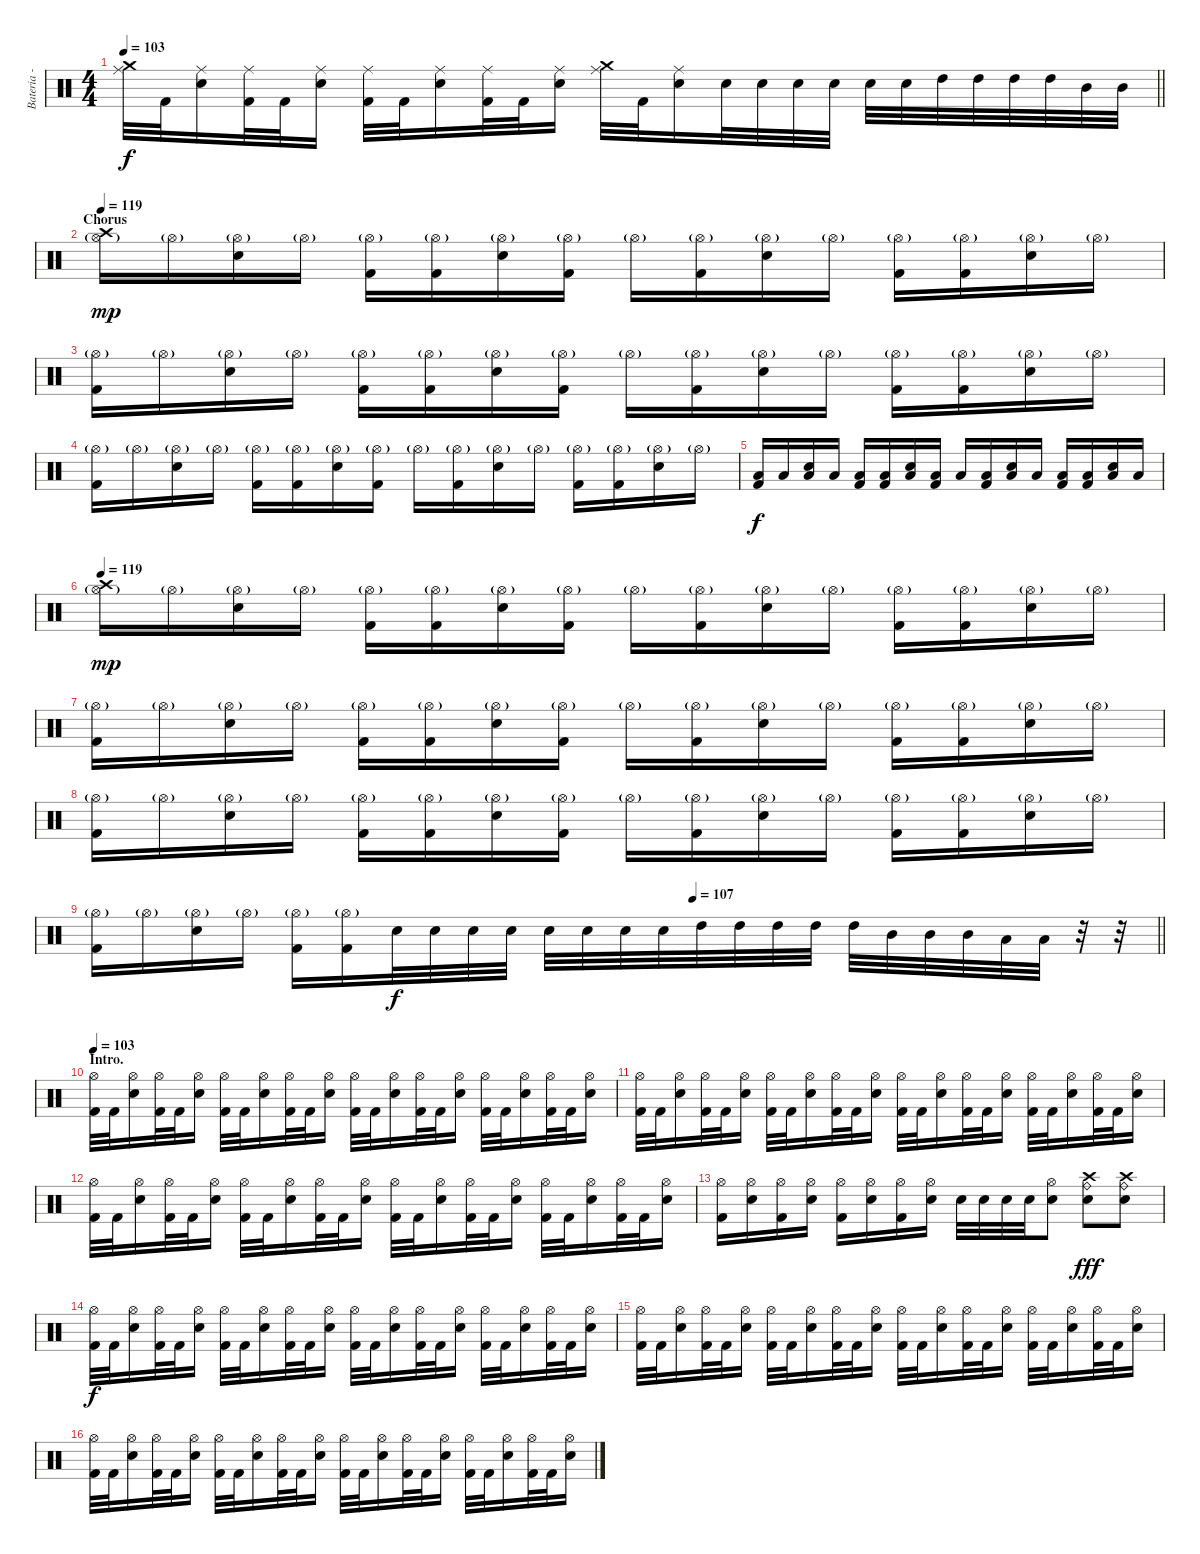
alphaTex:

\track ("Bateria - Larzon" "Bateria - ") {instrument percussion}
\staff {score}
\articulation defaults
\ts (4 4)
\tempo 103
\clef neutral
\barLineRight lightlight
\ks c
("Crash medium (hit)" "Ride (middle)").32{dy f} "Kick (hit) 2".32 ("Snare (hit) 2" "Ride (middle)").16 ("Kick (hit) 2" "Ride (middle)").32 "Kick (hit) 2".32 ("Snare (hit) 2" "Ride (middle)").16 ("Kick (hit) 2" "Ride (middle)").32 "Kick (hit) 2".32 ("Snare (hit) 2" "Ride (middle)").16 ("Kick (hit) 2" "Ride (middle)").32 "Kick (hit) 2".32 ("Snare (hit) 2" "Ride (middle)").16 ("Crash medium (hit)" "Ride (middle)").32 "Kick (hit) 2".32 ("Snare (hit) 2" "Ride (middle)").16 "Snare (hit) 2".32 "Snare (hit) 2".32 "Snare (hit) 2".32 "Snare (hit) 2".32 "Snare (hit) 2".32 "Snare (hit) 2".32 "High Tom (hit)".32 "High Tom (hit)".32 "High Tom (hit)".32 "High Tom (hit)".32 "Mid Tom (hit)".32 "Mid Tom (hit)".32 |
\section ("" "Chorus")
\tempo 119
("Crash high (hit)" "Hi-Hat (open)"{g}).16{dy mp} "Hi-Hat (open)"{g}.16 ("Electric Snare (hit)" "Hi-Hat (open)"{g}).16 "Hi-Hat (open)"{g}.16 ("Kick (hit) 2" "Hi-Hat (open)"{g}).16 ("Kick (hit) 2" "Hi-Hat (open)"{g}).16 ("Electric Snare (hit)" "Hi-Hat (open)"{g}).16 ("Kick (hit) 2" "Hi-Hat (open)"{g}).16 "Hi-Hat (open)"{g}.16 ("Kick (hit) 2" "Hi-Hat (open)"{g}).16 ("Electric Snare (hit)" "Hi-Hat (open)"{g}).16 "Hi-Hat (open)"{g}.16 ("Kick (hit) 2" "Hi-Hat (open)"{g}).16 ("Kick (hit) 2" "Hi-Hat (open)"{g}).16 ("Electric Snare (hit)" "Hi-Hat (open)"{g}).16 "Hi-Hat (open)"{g}.16 |
("Kick (hit) 2" "Hi-Hat (open)"{g}).16 "Hi-Hat (open)"{g}.16 ("Electric Snare (hit)" "Hi-Hat (open)"{g}).16 "Hi-Hat (open)"{g}.16 ("Kick (hit) 2" "Hi-Hat (open)"{g}).16 ("Kick (hit) 2" "Hi-Hat (open)"{g}).16 ("Electric Snare (hit)" "Hi-Hat (open)"{g}).16 ("Kick (hit) 2" "Hi-Hat (open)"{g}).16 "Hi-Hat (open)"{g}.16 ("Kick (hit) 2" "Hi-Hat (open)"{g}).16 ("Electric Snare (hit)" "Hi-Hat (open)"{g}).16 "Hi-Hat (open)"{g}.16 ("Kick (hit) 2" "Hi-Hat (open)"{g}).16 ("Kick (hit) 2" "Hi-Hat (open)"{g}).16 ("Electric Snare (hit)" "Hi-Hat (open)"{g}).16 "Hi-Hat (open)"{g}.16 |
("Kick (hit) 2" "Hi-Hat (open)"{g}).16 "Hi-Hat (open)"{g}.16 ("Electric Snare (hit)" "Hi-Hat (open)"{g}).16 "Hi-Hat (open)"{g}.16 ("Kick (hit) 2" "Hi-Hat (open)"{g}).16 ("Kick (hit) 2" "Hi-Hat (open)"{g}).16 ("Electric Snare (hit)" "Hi-Hat (open)"{g}).16 ("Kick (hit) 2" "Hi-Hat (open)"{g}).16 "Hi-Hat (open)"{g}.16 ("Kick (hit) 2" "Hi-Hat (open)"{g}).16 ("Electric Snare (hit)" "Hi-Hat (open)"{g}).16 "Hi-Hat (open)"{g}.16 ("Kick (hit) 2" "Hi-Hat (open)"{g}).16 ("Kick (hit) 2" "Hi-Hat (open)"{g}).16 ("Electric Snare (hit)" "Hi-Hat (open)"{g}).16 "Hi-Hat (open)"{g}.16 |
("Kick (hit) 2" "Low Floor Tom (hit)").16{dy f} "Low Floor Tom (hit)".16 ("Electric Snare (hit)" "Low Floor Tom (hit)").16 "Low Floor Tom (hit)".16 ("Kick (hit) 2" "Low Floor Tom (hit)").16 ("Kick (hit) 2" "Low Floor Tom (hit)").16 ("Electric Snare (hit)" "Low Floor Tom (hit)").16 ("Kick (hit) 2" "Low Floor Tom (hit)").16 "Low Floor Tom (hit)".16 ("Kick (hit) 2" "Low Floor Tom (hit)").16 ("Electric Snare (hit)" "Low Floor Tom (hit)").16 "Low Floor Tom (hit)".16 ("Kick (hit) 2" "Low Floor Tom (hit)").16 ("Kick (hit) 2" "Low Floor Tom (hit)").16 ("Electric Snare (hit)" "Low Floor Tom (hit)").16 "Low Floor Tom (hit)".16 |
\tempo 119
("Crash high (hit)" "Hi-Hat (open)"{g}).16{dy mp} "Hi-Hat (open)"{g}.16 ("Electric Snare (hit)" "Hi-Hat (open)"{g}).16 "Hi-Hat (open)"{g}.16 ("Kick (hit) 2" "Hi-Hat (open)"{g}).16 ("Kick (hit) 2" "Hi-Hat (open)"{g}).16 ("Electric Snare (hit)" "Hi-Hat (open)"{g}).16 ("Kick (hit) 2" "Hi-Hat (open)"{g}).16 "Hi-Hat (open)"{g}.16 ("Kick (hit) 2" "Hi-Hat (open)"{g}).16 ("Electric Snare (hit)" "Hi-Hat (open)"{g}).16 "Hi-Hat (open)"{g}.16 ("Kick (hit) 2" "Hi-Hat (open)"{g}).16 ("Kick (hit) 2" "Hi-Hat (open)"{g}).16 ("Electric Snare (hit)" "Hi-Hat (open)"{g}).16 "Hi-Hat (open)"{g}.16 |
("Kick (hit) 2" "Hi-Hat (open)"{g}).16 "Hi-Hat (open)"{g}.16 ("Electric Snare (hit)" "Hi-Hat (open)"{g}).16 "Hi-Hat (open)"{g}.16 ("Kick (hit) 2" "Hi-Hat (open)"{g}).16 ("Kick (hit) 2" "Hi-Hat (open)"{g}).16 ("Electric Snare (hit)" "Hi-Hat (open)"{g}).16 ("Kick (hit) 2" "Hi-Hat (open)"{g}).16 "Hi-Hat (open)"{g}.16 ("Kick (hit) 2" "Hi-Hat (open)"{g}).16 ("Electric Snare (hit)" "Hi-Hat (open)"{g}).16 "Hi-Hat (open)"{g}.16 ("Kick (hit) 2" "Hi-Hat (open)"{g}).16 ("Kick (hit) 2" "Hi-Hat (open)"{g}).16 ("Electric Snare (hit)" "Hi-Hat (open)"{g}).16 "Hi-Hat (open)"{g}.16 |
("Kick (hit) 2" "Hi-Hat (open)"{g}).16 "Hi-Hat (open)"{g}.16 ("Electric Snare (hit)" "Hi-Hat (open)"{g}).16 "Hi-Hat (open)"{g}.16 ("Kick (hit) 2" "Hi-Hat (open)"{g}).16 ("Kick (hit) 2" "Hi-Hat (open)"{g}).16 ("Electric Snare (hit)" "Hi-Hat (open)"{g}).16 ("Kick (hit) 2" "Hi-Hat (open)"{g}).16 "Hi-Hat (open)"{g}.16 ("Kick (hit) 2" "Hi-Hat (open)"{g}).16 ("Electric Snare (hit)" "Hi-Hat (open)"{g}).16 "Hi-Hat (open)"{g}.16 ("Kick (hit) 2" "Hi-Hat (open)"{g}).16 ("Kick (hit) 2" "Hi-Hat (open)"{g}).16 ("Electric Snare (hit)" "Hi-Hat (open)"{g}).16 "Hi-Hat (open)"{g}.16 |
\tempo (107 0.5625)
\barLineRight lightlight
("Kick (hit) 2" "Hi-Hat (open)"{g}).16 "Hi-Hat (open)"{g}.16 ("Electric Snare (hit)" "Hi-Hat (open)"{g}).16 "Hi-Hat (open)"{g}.16 ("Kick (hit) 2" "Hi-Hat (open)"{g}).16 ("Kick (hit) 2" "Hi-Hat (open)"{g}).16 "Snare (hit) 2".32{dy f} "Snare (hit) 2".32 "Snare (hit) 2".32 "Snare (hit) 2".32 "Snare (hit) 2".32 "Snare (hit) 2".32 "Snare (hit) 2".32 "Snare (hit) 2".32 "High Tom (hit)".32 "High Tom (hit)".32 "High Tom (hit)".32 "High Tom (hit)".32 "High Tom (hit)".32 "Mid Tom (hit)".32 "Mid Tom (hit)".32 "Mid Tom (hit)".32 "Low Tom (hit)".32 "Low Tom (hit)".32 r.32 r.32 |
\section ("" "Intro.")
\tempo 103
("Kick (hit) 2" "Hi-Hat (open)").32 "Kick (hit) 2".32 ("Snare (hit) 2" "Hi-Hat (open)").16 ("Kick (hit) 2" "Hi-Hat (open)").32 "Kick (hit) 2".32 ("Snare (hit) 2" "Hi-Hat (open)").16 ("Kick (hit) 2" "Hi-Hat (open)").32 "Kick (hit) 2".32 ("Snare (hit) 2" "Hi-Hat (open)").16 ("Kick (hit) 2" "Hi-Hat (open)").32 "Kick (hit) 2".32 ("Snare (hit) 2" "Hi-Hat (open)").16 ("Kick (hit) 2" "Hi-Hat (open)").32 "Kick (hit) 2".32 ("Snare (hit) 2" "Hi-Hat (open)").16 ("Kick (hit) 2" "Hi-Hat (open)").32 "Kick (hit) 2".32 ("Snare (hit) 2" "Hi-Hat (open)").16 ("Kick (hit) 2" "Hi-Hat (open)").32 "Kick (hit) 2".32 ("Snare (hit) 2" "Hi-Hat (open)").16 ("Kick (hit) 2" "Hi-Hat (open)").32 "Kick (hit) 2".32 ("Snare (hit) 2" "Hi-Hat (open)").16 |
("Kick (hit) 2" "Hi-Hat (open)").32 "Kick (hit) 2".32 ("Snare (hit) 2" "Hi-Hat (open)").16 ("Kick (hit) 2" "Hi-Hat (open)").32 "Kick (hit) 2".32 ("Snare (hit) 2" "Hi-Hat (open)").16 ("Kick (hit) 2" "Hi-Hat (open)").32 "Kick (hit) 2".32 ("Snare (hit) 2" "Hi-Hat (open)").16 ("Kick (hit) 2" "Hi-Hat (open)").32 "Kick (hit) 2".32 ("Snare (hit) 2" "Hi-Hat (open)").16 ("Kick (hit) 2" "Hi-Hat (open)").32 "Kick (hit) 2".32 ("Snare (hit) 2" "Hi-Hat (open)").16 ("Kick (hit) 2" "Hi-Hat (open)").32 "Kick (hit) 2".32 ("Snare (hit) 2" "Hi-Hat (open)").16 ("Kick (hit) 2" "Hi-Hat (open)").32 "Kick (hit) 2".32 ("Snare (hit) 2" "Hi-Hat (open)").16 ("Kick (hit) 2" "Hi-Hat (open)").32 "Kick (hit) 2".32 ("Snare (hit) 2" "Hi-Hat (open)").16 |
("Kick (hit) 2" "Hi-Hat (open)").32 "Kick (hit) 2".32 ("Snare (hit) 2" "Hi-Hat (open)").16 ("Kick (hit) 2" "Hi-Hat (open)").32 "Kick (hit) 2".32 ("Snare (hit) 2" "Hi-Hat (open)").16 ("Kick (hit) 2" "Hi-Hat (open)").32 "Kick (hit) 2".32 ("Snare (hit) 2" "Hi-Hat (open)").16 ("Kick (hit) 2" "Hi-Hat (open)").32 "Kick (hit) 2".32 ("Snare (hit) 2" "Hi-Hat (open)").16 ("Kick (hit) 2" "Hi-Hat (open)").32 "Kick (hit) 2".32 ("Snare (hit) 2" "Hi-Hat (open)").16 ("Kick (hit) 2" "Hi-Hat (open)").32 "Kick (hit) 2".32 ("Snare (hit) 2" "Hi-Hat (open)").16 ("Kick (hit) 2" "Hi-Hat (open)").32 "Kick (hit) 2".32 ("Snare (hit) 2" "Hi-Hat (open)").16 ("Kick (hit) 2" "Hi-Hat (open)").32 "Kick (hit) 2".32 ("Snare (hit) 2" "Hi-Hat (open)").16 |
("Kick (hit) 2" "Hi-Hat (open)").16 ("Snare (hit) 2" "Hi-Hat (open)").16 ("Kick (hit) 2" "Hi-Hat (open)").16 ("Snare (hit) 2" "Hi-Hat (open)").16 ("Kick (hit) 2" "Hi-Hat (open)").16 ("Snare (hit) 2" "Hi-Hat (open)").16 ("Kick (hit) 2" "Hi-Hat (open)").16 ("Snare (hit) 2" "Hi-Hat (open)").16 "Snare (hit) 2".32 "Snare (hit) 2".32 "Snare (hit) 2".32 "Snare (hit) 2".32 ("Snare (hit) 2" "Hi-Hat (open)").8 ("Snare (hit) 2" "Ride (bell)" "Crash high (hit)").8{dy fff} ("Snare (hit) 2" "Ride (bell)" "Crash high (hit)").8 |
("Kick (hit) 2" "Hi-Hat (open)").32{dy f} "Kick (hit) 2".32 ("Snare (hit) 2" "Hi-Hat (open)").16 ("Kick (hit) 2" "Hi-Hat (open)").32 "Kick (hit) 2".32 ("Snare (hit) 2" "Hi-Hat (open)").16 ("Kick (hit) 2" "Hi-Hat (open)").32 "Kick (hit) 2".32 ("Snare (hit) 2" "Hi-Hat (open)").16 ("Kick (hit) 2" "Hi-Hat (open)").32 "Kick (hit) 2".32 ("Snare (hit) 2" "Hi-Hat (open)").16 ("Kick (hit) 2" "Hi-Hat (open)").32 "Kick (hit) 2".32 ("Snare (hit) 2" "Hi-Hat (open)").16 ("Kick (hit) 2" "Hi-Hat (open)").32 "Kick (hit) 2".32 ("Snare (hit) 2" "Hi-Hat (open)").16 ("Kick (hit) 2" "Hi-Hat (open)").32 "Kick (hit) 2".32 ("Snare (hit) 2" "Hi-Hat (open)").16 ("Kick (hit) 2" "Hi-Hat (open)").32 "Kick (hit) 2".32 ("Snare (hit) 2" "Hi-Hat (open)").16 |
("Kick (hit) 2" "Hi-Hat (open)").32 "Kick (hit) 2".32 ("Snare (hit) 2" "Hi-Hat (open)").16 ("Kick (hit) 2" "Hi-Hat (open)").32 "Kick (hit) 2".32 ("Snare (hit) 2" "Hi-Hat (open)").16 ("Kick (hit) 2" "Hi-Hat (open)").32 "Kick (hit) 2".32 ("Snare (hit) 2" "Hi-Hat (open)").16 ("Kick (hit) 2" "Hi-Hat (open)").32 "Kick (hit) 2".32 ("Snare (hit) 2" "Hi-Hat (open)").16 ("Kick (hit) 2" "Hi-Hat (open)").32 "Kick (hit) 2".32 ("Snare (hit) 2" "Hi-Hat (open)").16 ("Kick (hit) 2" "Hi-Hat (open)").32 "Kick (hit) 2".32 ("Snare (hit) 2" "Hi-Hat (open)").16 ("Kick (hit) 2" "Hi-Hat (open)").32 "Kick (hit) 2".32 ("Snare (hit) 2" "Hi-Hat (open)").16 ("Kick (hit) 2" "Hi-Hat (open)").32 "Kick (hit) 2".32 ("Snare (hit) 2" "Hi-Hat (open)").16 |
("Kick (hit) 2" "Hi-Hat (open)").32 "Kick (hit) 2".32 ("Snare (hit) 2" "Hi-Hat (open)").16 ("Kick (hit) 2" "Hi-Hat (open)").32 "Kick (hit) 2".32 ("Snare (hit) 2" "Hi-Hat (open)").16 ("Kick (hit) 2" "Hi-Hat (open)").32 "Kick (hit) 2".32 ("Snare (hit) 2" "Hi-Hat (open)").16 ("Kick (hit) 2" "Hi-Hat (open)").32 "Kick (hit) 2".32 ("Snare (hit) 2" "Hi-Hat (open)").16 ("Kick (hit) 2" "Hi-Hat (open)").32 "Kick (hit) 2".32 ("Snare (hit) 2" "Hi-Hat (open)").16 ("Kick (hit) 2" "Hi-Hat (open)").32 "Kick (hit) 2".32 ("Snare (hit) 2" "Hi-Hat (open)").16 ("Kick (hit) 2" "Hi-Hat (open)").32 "Kick (hit) 2".32 ("Snare (hit) 2" "Hi-Hat (open)").16 ("Kick (hit) 2" "Hi-Hat (open)").32 "Kick (hit) 2".32 ("Snare (hit) 2" "Hi-Hat (open)").16
